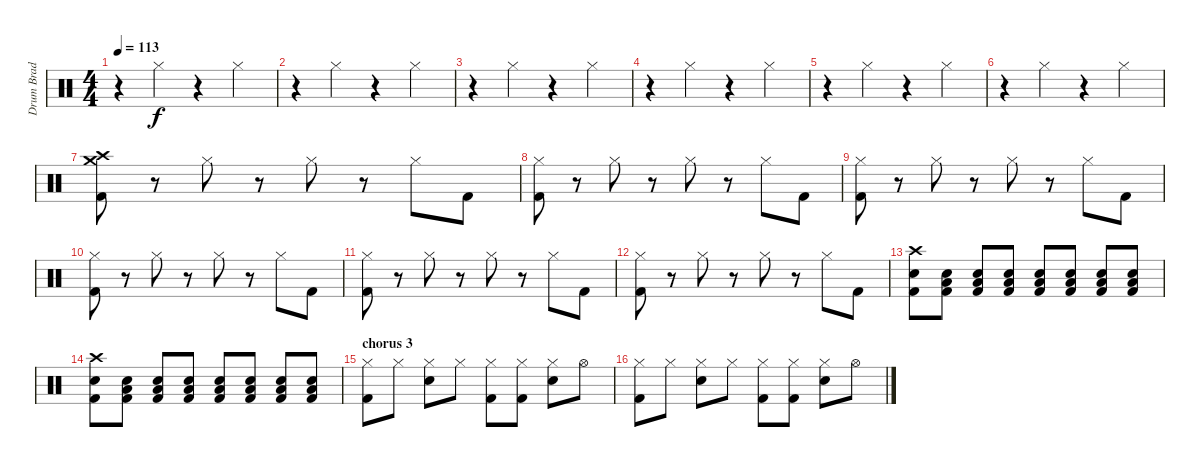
\track ("Drum Brad Wilk" "Drum Brad ") {instrument percussion}
\staff {score}
\articulation defaults
\ts (4 4)
\tempo 113
\clef neutral
\ks c
r.4{dy f} "Hi-Hat (closed)".4 r.4 "Hi-Hat (closed)".4 |
r.4 "Hi-Hat (closed)".4 r.4 "Hi-Hat (closed)".4 |
r.4 "Hi-Hat (closed)".4 r.4 "Hi-Hat (closed)".4 |
r.4 "Hi-Hat (closed)".4 r.4 "Hi-Hat (closed)".4 |
r.4 "Hi-Hat (closed)".4 r.4 "Hi-Hat (closed)".4 |
r.4 "Hi-Hat (closed)".4 r.4 "Hi-Hat (closed)".4 |
("Crash high (hit)" "Crash medium (hit)" "Kick (hit) 2").8 r.8 "Hi-Hat (closed)".8 r.8 "Hi-Hat (closed)".8 r.8 "Hi-Hat (closed)".8 "Kick (hit) 2".8 |
("Hi-Hat (closed)" "Kick (hit) 2").8 r.8 "Hi-Hat (closed)".8 r.8 "Hi-Hat (closed)".8 r.8 "Hi-Hat (closed)".8 "Kick (hit) 2".8 |
("Hi-Hat (closed)" "Kick (hit) 2").8 r.8 "Hi-Hat (closed)".8 r.8 "Hi-Hat (closed)".8 r.8 "Hi-Hat (closed)".8 "Kick (hit) 2".8 |
("Hi-Hat (closed)" "Kick (hit) 2").8 r.8 "Hi-Hat (closed)".8 r.8 "Hi-Hat (closed)".8 r.8 "Hi-Hat (closed)".8 "Kick (hit) 2".8 |
("Hi-Hat (closed)" "Kick (hit) 2").8 r.8 "Hi-Hat (closed)".8 r.8 "Hi-Hat (closed)".8 r.8 "Hi-Hat (closed)".8 "Kick (hit) 2".8 |
("Hi-Hat (closed)" "Kick (hit) 2").8 r.8 "Hi-Hat (closed)".8 r.8 "Hi-Hat (closed)".8 r.8 "Hi-Hat (closed)".8 "Kick (hit) 2".8 |
("Crash high (hit)" "Snare (hit) 2" "Kick (hit) 2").8{volume 5} ("Low Tom (hit)" "Snare (hit) 2" "Kick (hit) 2").8{volume 16} ("Low Tom (hit)" "Snare (hit) 2" "Kick (hit) 2").8 ("Low Tom (hit)" "Snare (hit) 2" "Kick (hit) 2").8 ("Low Tom (hit)" "Snare (hit) 2" "Kick (hit) 2").8 ("Low Tom (hit)" "Snare (hit) 2" "Kick (hit) 2").8 ("Low Tom (hit)" "Snare (hit) 2" "Kick (hit) 2").8 ("Low Tom (hit)" "Snare (hit) 2" "Kick (hit) 2").8 |
("Crash high (hit)" "Snare (hit) 2" "Kick (hit) 2").8 ("Low Tom (hit)" "Snare (hit) 2" "Kick (hit) 2").8 ("Low Tom (hit)" "Snare (hit) 2" "Kick (hit) 2").8 ("Low Tom (hit)" "Snare (hit) 2" "Kick (hit) 2").8 ("Low Tom (hit)" "Snare (hit) 2" "Kick (hit) 2").8 ("Low Tom (hit)" "Snare (hit) 2" "Kick (hit) 2").8 ("Low Tom (hit)" "Snare (hit) 2" "Kick (hit) 2").8 ("Low Tom (hit)" "Snare (hit) 2" "Kick (hit) 2").8 |
\section ("" "chorus 3")
("Hi-Hat (closed)" "Kick (hit) 2").8 "Hi-Hat (closed)".8 ("Hi-Hat (closed)" "Snare (hit) 2").8 "Hi-Hat (closed)".8 ("Hi-Hat (closed)" "Kick (hit) 2").8 ("Hi-Hat (closed)" "Kick (hit) 2").8 ("Hi-Hat (closed)" "Snare (hit) 2").8 "Hi-Hat (open)".8 |
("Hi-Hat (closed)" "Kick (hit) 2").8 "Hi-Hat (closed)".8 ("Hi-Hat (closed)" "Snare (hit) 2").8 "Hi-Hat (closed)".8 ("Hi-Hat (closed)" "Kick (hit) 2").8 ("Hi-Hat (closed)" "Kick (hit) 2").8 ("Hi-Hat (closed)" "Snare (hit) 2").8 "Hi-Hat (open)".8
